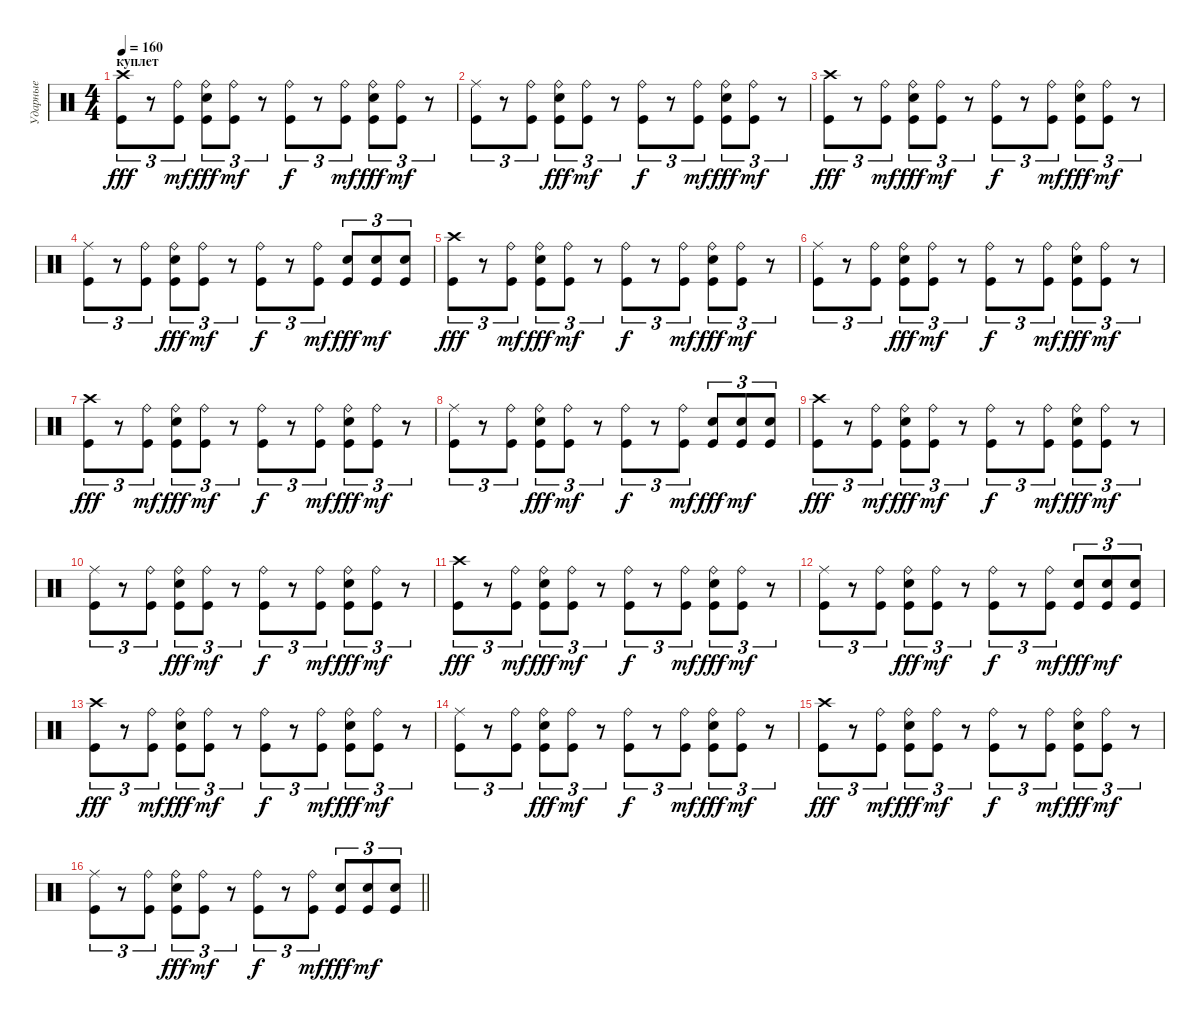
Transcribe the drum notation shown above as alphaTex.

\track ("Ударные" "Ударные") {instrument percussion}
\staff {score}
\articulation defaults
\ts (4 4)
\section ("" "куплет")
\tempo 160
\clef neutral
\ks c
("Kick (hit)" "Crash high (hit)").8{tu (3 2) dy fff} r.8{tu (3 2)} ("Kick (hit)" "Ride (bell)").8{tu (3 2) dy mf} ("Kick (hit)" "Snare (hit) 2" "Ride (bell)").8{tu (3 2) dy fff} ("Kick (hit)" "Ride (bell)").8{tu (3 2) dy mf} r.8{tu (3 2)} ("Kick (hit)" "Ride (bell)").8{tu (3 2) dy f} r.8{tu (3 2)} ("Kick (hit)" "Ride (bell)").8{tu (3 2) dy mf} ("Kick (hit)" "Snare (hit) 2" "Ride (bell)").8{tu (3 2) dy fff} ("Kick (hit)" "Ride (bell)").8{tu (3 2) dy mf} r.8{tu (3 2)} |
("Kick (hit)" "Ride (middle)").8{tu (3 2)} r.8{tu (3 2)} ("Kick (hit)" "Ride (bell)").8{tu (3 2)} ("Kick (hit)" "Snare (hit) 2" "Ride (bell)").8{tu (3 2) dy fff} ("Kick (hit)" "Ride (bell)").8{tu (3 2) dy mf} r.8{tu (3 2)} ("Kick (hit)" "Ride (bell)").8{tu (3 2) dy f} r.8{tu (3 2)} ("Kick (hit)" "Ride (bell)").8{tu (3 2) dy mf} ("Kick (hit)" "Snare (hit) 2" "Ride (bell)").8{tu (3 2) dy fff} ("Kick (hit)" "Ride (bell)").8{tu (3 2) dy mf} r.8{tu (3 2)} |
("Kick (hit)" "Crash high (hit)").8{tu (3 2) dy fff} r.8{tu (3 2)} ("Kick (hit)" "Ride (bell)").8{tu (3 2) dy mf} ("Kick (hit)" "Snare (hit) 2" "Ride (bell)").8{tu (3 2) dy fff} ("Kick (hit)" "Ride (bell)").8{tu (3 2) dy mf} r.8{tu (3 2)} ("Kick (hit)" "Ride (bell)").8{tu (3 2) dy f} r.8{tu (3 2)} ("Kick (hit)" "Ride (bell)").8{tu (3 2) dy mf} ("Kick (hit)" "Snare (hit) 2" "Ride (bell)").8{tu (3 2) dy fff} ("Kick (hit)" "Ride (bell)").8{tu (3 2) dy mf} r.8{tu (3 2)} |
("Kick (hit)" "Ride (middle)").8{tu (3 2)} r.8{tu (3 2)} ("Kick (hit)" "Ride (bell)").8{tu (3 2)} ("Kick (hit)" "Snare (hit) 2" "Ride (bell)").8{tu (3 2) dy fff} ("Kick (hit)" "Ride (bell)").8{tu (3 2) dy mf} r.8{tu (3 2)} ("Kick (hit)" "Ride (bell)").8{tu (3 2) dy f} r.8{tu (3 2)} ("Kick (hit)" "Ride (bell)").8{tu (3 2) dy mf} ("Kick (hit)" "Snare (hit) 2").8{tu (3 2) dy fff} ("Kick (hit)" "Snare (hit) 2").8{tu (3 2) dy mf} ("Snare (hit) 2" "Kick (hit)").8{tu (3 2)} |
("Kick (hit)" "Crash high (hit)").8{tu (3 2) dy fff} r.8{tu (3 2)} ("Kick (hit)" "Ride (bell)").8{tu (3 2) dy mf} ("Kick (hit)" "Snare (hit) 2" "Ride (bell)").8{tu (3 2) dy fff} ("Kick (hit)" "Ride (bell)").8{tu (3 2) dy mf} r.8{tu (3 2)} ("Kick (hit)" "Ride (bell)").8{tu (3 2) dy f} r.8{tu (3 2)} ("Kick (hit)" "Ride (bell)").8{tu (3 2) dy mf} ("Kick (hit)" "Snare (hit) 2" "Ride (bell)").8{tu (3 2) dy fff} ("Kick (hit)" "Ride (bell)").8{tu (3 2) dy mf} r.8{tu (3 2)} |
("Kick (hit)" "Ride (middle)").8{tu (3 2)} r.8{tu (3 2)} ("Kick (hit)" "Ride (bell)").8{tu (3 2)} ("Kick (hit)" "Snare (hit) 2" "Ride (bell)").8{tu (3 2) dy fff} ("Kick (hit)" "Ride (bell)").8{tu (3 2) dy mf} r.8{tu (3 2)} ("Kick (hit)" "Ride (bell)").8{tu (3 2) dy f} r.8{tu (3 2)} ("Kick (hit)" "Ride (bell)").8{tu (3 2) dy mf} ("Kick (hit)" "Snare (hit) 2" "Ride (bell)").8{tu (3 2) dy fff} ("Kick (hit)" "Ride (bell)").8{tu (3 2) dy mf} r.8{tu (3 2)} |
("Kick (hit)" "Crash high (hit)").8{tu (3 2) dy fff} r.8{tu (3 2)} ("Kick (hit)" "Ride (bell)").8{tu (3 2) dy mf} ("Kick (hit)" "Snare (hit) 2" "Ride (bell)").8{tu (3 2) dy fff} ("Kick (hit)" "Ride (bell)").8{tu (3 2) dy mf} r.8{tu (3 2)} ("Kick (hit)" "Ride (bell)").8{tu (3 2) dy f} r.8{tu (3 2)} ("Kick (hit)" "Ride (bell)").8{tu (3 2) dy mf} ("Kick (hit)" "Snare (hit) 2" "Ride (bell)").8{tu (3 2) dy fff} ("Kick (hit)" "Ride (bell)").8{tu (3 2) dy mf} r.8{tu (3 2)} |
("Kick (hit)" "Ride (middle)").8{tu (3 2)} r.8{tu (3 2)} ("Kick (hit)" "Ride (bell)").8{tu (3 2)} ("Kick (hit)" "Snare (hit) 2" "Ride (bell)").8{tu (3 2) dy fff} ("Kick (hit)" "Ride (bell)").8{tu (3 2) dy mf} r.8{tu (3 2)} ("Kick (hit)" "Ride (bell)").8{tu (3 2) dy f} r.8{tu (3 2)} ("Kick (hit)" "Ride (bell)").8{tu (3 2) dy mf} ("Kick (hit)" "Snare (hit) 2").8{tu (3 2) dy fff} ("Kick (hit)" "Snare (hit) 2").8{tu (3 2) dy mf} ("Snare (hit) 2" "Kick (hit)").8{tu (3 2)} |
("Kick (hit)" "Crash high (hit)").8{tu (3 2) dy fff} r.8{tu (3 2)} ("Kick (hit)" "Ride (bell)").8{tu (3 2) dy mf} ("Kick (hit)" "Snare (hit) 2" "Ride (bell)").8{tu (3 2) dy fff} ("Kick (hit)" "Ride (bell)").8{tu (3 2) dy mf} r.8{tu (3 2)} ("Kick (hit)" "Ride (bell)").8{tu (3 2) dy f} r.8{tu (3 2)} ("Kick (hit)" "Ride (bell)").8{tu (3 2) dy mf} ("Kick (hit)" "Snare (hit) 2" "Ride (bell)").8{tu (3 2) dy fff} ("Kick (hit)" "Ride (bell)").8{tu (3 2) dy mf} r.8{tu (3 2)} |
("Kick (hit)" "Ride (middle)").8{tu (3 2)} r.8{tu (3 2)} ("Kick (hit)" "Ride (bell)").8{tu (3 2)} ("Kick (hit)" "Snare (hit) 2" "Ride (bell)").8{tu (3 2) dy fff} ("Kick (hit)" "Ride (bell)").8{tu (3 2) dy mf} r.8{tu (3 2)} ("Kick (hit)" "Ride (bell)").8{tu (3 2) dy f} r.8{tu (3 2)} ("Kick (hit)" "Ride (bell)").8{tu (3 2) dy mf} ("Kick (hit)" "Snare (hit) 2" "Ride (bell)").8{tu (3 2) dy fff} ("Kick (hit)" "Ride (bell)").8{tu (3 2) dy mf} r.8{tu (3 2)} |
("Kick (hit)" "Crash high (hit)").8{tu (3 2) dy fff} r.8{tu (3 2)} ("Kick (hit)" "Ride (bell)").8{tu (3 2) dy mf} ("Kick (hit)" "Snare (hit) 2" "Ride (bell)").8{tu (3 2) dy fff} ("Kick (hit)" "Ride (bell)").8{tu (3 2) dy mf} r.8{tu (3 2)} ("Kick (hit)" "Ride (bell)").8{tu (3 2) dy f} r.8{tu (3 2)} ("Kick (hit)" "Ride (bell)").8{tu (3 2) dy mf} ("Kick (hit)" "Snare (hit) 2" "Ride (bell)").8{tu (3 2) dy fff} ("Kick (hit)" "Ride (bell)").8{tu (3 2) dy mf} r.8{tu (3 2)} |
("Kick (hit)" "Ride (middle)").8{tu (3 2)} r.8{tu (3 2)} ("Kick (hit)" "Ride (bell)").8{tu (3 2)} ("Kick (hit)" "Snare (hit) 2" "Ride (bell)").8{tu (3 2) dy fff} ("Kick (hit)" "Ride (bell)").8{tu (3 2) dy mf} r.8{tu (3 2)} ("Kick (hit)" "Ride (bell)").8{tu (3 2) dy f} r.8{tu (3 2)} ("Kick (hit)" "Ride (bell)").8{tu (3 2) dy mf} ("Kick (hit)" "Snare (hit) 2").8{tu (3 2) dy fff} ("Kick (hit)" "Snare (hit) 2").8{tu (3 2) dy mf} ("Snare (hit) 2" "Kick (hit)").8{tu (3 2)} |
("Kick (hit)" "Crash high (hit)").8{tu (3 2) dy fff} r.8{tu (3 2)} ("Kick (hit)" "Ride (bell)").8{tu (3 2) dy mf} ("Kick (hit)" "Snare (hit) 2" "Ride (bell)").8{tu (3 2) dy fff} ("Kick (hit)" "Ride (bell)").8{tu (3 2) dy mf} r.8{tu (3 2)} ("Kick (hit)" "Ride (bell)").8{tu (3 2) dy f} r.8{tu (3 2)} ("Kick (hit)" "Ride (bell)").8{tu (3 2) dy mf} ("Kick (hit)" "Snare (hit) 2" "Ride (bell)").8{tu (3 2) dy fff} ("Kick (hit)" "Ride (bell)").8{tu (3 2) dy mf} r.8{tu (3 2)} |
("Kick (hit)" "Ride (middle)").8{tu (3 2)} r.8{tu (3 2)} ("Kick (hit)" "Ride (bell)").8{tu (3 2)} ("Kick (hit)" "Snare (hit) 2" "Ride (bell)").8{tu (3 2) dy fff} ("Kick (hit)" "Ride (bell)").8{tu (3 2) dy mf} r.8{tu (3 2)} ("Kick (hit)" "Ride (bell)").8{tu (3 2) dy f} r.8{tu (3 2)} ("Kick (hit)" "Ride (bell)").8{tu (3 2) dy mf} ("Kick (hit)" "Snare (hit) 2" "Ride (bell)").8{tu (3 2) dy fff} ("Kick (hit)" "Ride (bell)").8{tu (3 2) dy mf} r.8{tu (3 2)} |
("Kick (hit)" "Crash high (hit)").8{tu (3 2) dy fff} r.8{tu (3 2)} ("Kick (hit)" "Ride (bell)").8{tu (3 2) dy mf} ("Kick (hit)" "Snare (hit) 2" "Ride (bell)").8{tu (3 2) dy fff} ("Kick (hit)" "Ride (bell)").8{tu (3 2) dy mf} r.8{tu (3 2)} ("Kick (hit)" "Ride (bell)").8{tu (3 2) dy f} r.8{tu (3 2)} ("Kick (hit)" "Ride (bell)").8{tu (3 2) dy mf} ("Kick (hit)" "Snare (hit) 2" "Ride (bell)").8{tu (3 2) dy fff} ("Kick (hit)" "Ride (bell)").8{tu (3 2) dy mf} r.8{tu (3 2)} |
\barLineRight lightlight
("Kick (hit)" "Ride (middle)").8{tu (3 2)} r.8{tu (3 2)} ("Kick (hit)" "Ride (bell)").8{tu (3 2)} ("Kick (hit)" "Snare (hit) 2" "Ride (bell)").8{tu (3 2) dy fff} ("Kick (hit)" "Ride (bell)").8{tu (3 2) dy mf} r.8{tu (3 2)} ("Kick (hit)" "Ride (bell)").8{tu (3 2) dy f} r.8{tu (3 2)} ("Kick (hit)" "Ride (bell)").8{tu (3 2) dy mf} ("Kick (hit)" "Snare (hit) 2").8{tu (3 2) dy fff} ("Kick (hit)" "Snare (hit) 2").8{tu (3 2) dy mf} ("Snare (hit) 2" "Kick (hit)").8{tu (3 2)}
